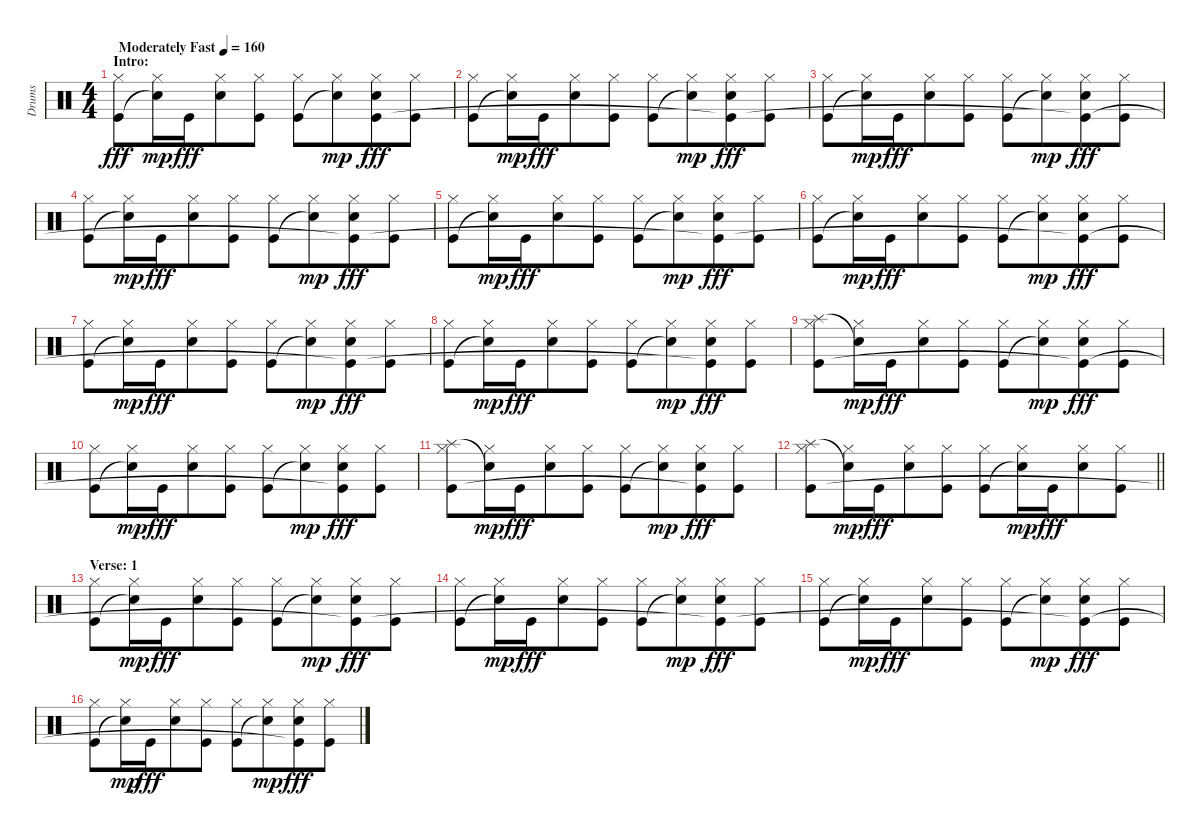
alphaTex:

\track ("Drums" "Drums") {instrument percussion}
\staff {score}
\articulation defaults
\ts (4 4)
\section ("" "Intro:")
\tempo (160 "Moderately Fast")
\clef neutral
\ks c
("Hi-Hat (closed)" "Kick (hit)").8{dy fff} ("Hi-Hat (closed)" "Snare (hit)"{t}).16{dy mp} "Kick (hit)".16{dy fff beam merge} ("Hi-Hat (closed)" "Snare (hit) 2").8 ("Hi-Hat (closed)" "Kick (hit)").8 ("Hi-Hat (closed)" "Kick (hit)").8 ("Hi-Hat (closed)" "Snare (hit)"{t}).8{dy mp beam merge} ("Hi-Hat (closed)" "Snare (hit) 2" "Kick (hit)").8{dy fff} ("Hi-Hat (closed)" "Kick (hit)").8 |
("Hi-Hat (closed)" "Kick (hit)").8 ("Hi-Hat (closed)" "Snare (hit)"{t}).16{dy mp} "Kick (hit)".16{dy fff beam merge} ("Hi-Hat (closed)" "Snare (hit) 2").8 ("Hi-Hat (closed)" "Kick (hit)").8 ("Hi-Hat (closed)" "Kick (hit)").8 ("Hi-Hat (closed)" "Snare (hit)"{t}).8{dy mp beam merge} ("Hi-Hat (closed)" "Snare (hit) 2" "Kick (hit)"{t}).8{dy fff} ("Hi-Hat (closed)" "Kick (hit)").8 |
("Hi-Hat (closed)" "Kick (hit)").8 ("Hi-Hat (closed)" "Snare (hit)"{t}).16{dy mp} "Kick (hit)".16{dy fff beam merge} ("Hi-Hat (closed)" "Snare (hit) 2").8 ("Hi-Hat (closed)" "Kick (hit)").8 ("Hi-Hat (closed)" "Kick (hit)").8 ("Hi-Hat (closed)" "Snare (hit)"{t}).8{dy mp beam merge} ("Hi-Hat (closed)" "Snare (hit) 2" "Kick (hit)"{t}).8{dy fff} ("Hi-Hat (closed)" "Kick (hit)").8 |
("Hi-Hat (closed)" "Kick (hit)").8 ("Hi-Hat (closed)" "Snare (hit)"{t}).16{dy mp} "Kick (hit)".16{dy fff beam merge} ("Hi-Hat (closed)" "Snare (hit) 2").8 ("Hi-Hat (closed)" "Kick (hit)").8 ("Hi-Hat (closed)" "Kick (hit)").8 ("Hi-Hat (closed)" "Snare (hit)"{t}).8{dy mp beam merge} ("Hi-Hat (closed)" "Snare (hit) 2" "Kick (hit)"{t}).8{dy fff} ("Hi-Hat (closed)" "Kick (hit)").8 |
("Hi-Hat (closed)" "Kick (hit)").8 ("Hi-Hat (closed)" "Snare (hit)"{t}).16{dy mp} "Kick (hit)".16{dy fff beam merge} ("Hi-Hat (closed)" "Snare (hit) 2").8 ("Hi-Hat (closed)" "Kick (hit)").8 ("Hi-Hat (closed)" "Kick (hit)").8 ("Hi-Hat (closed)" "Snare (hit)"{t}).8{dy mp beam merge} ("Hi-Hat (closed)" "Snare (hit) 2" "Kick (hit)"{t}).8{dy fff} ("Hi-Hat (closed)" "Kick (hit)").8 |
("Hi-Hat (closed)" "Kick (hit)").8 ("Hi-Hat (closed)" "Snare (hit)"{t}).16{dy mp} "Kick (hit)".16{dy fff beam merge} ("Hi-Hat (closed)" "Snare (hit) 2").8 ("Hi-Hat (closed)" "Kick (hit)").8 ("Hi-Hat (closed)" "Kick (hit)").8 ("Hi-Hat (closed)" "Snare (hit)"{t}).8{dy mp beam merge} ("Hi-Hat (closed)" "Snare (hit) 2" "Kick (hit)"{t}).8{dy fff} ("Hi-Hat (closed)" "Kick (hit)").8 |
("Hi-Hat (closed)" "Kick (hit)").8 ("Hi-Hat (closed)" "Snare (hit)"{t}).16{dy mp} "Kick (hit)".16{dy fff beam merge} ("Hi-Hat (closed)" "Snare (hit) 2").8 ("Hi-Hat (closed)" "Kick (hit)").8 ("Hi-Hat (closed)" "Kick (hit)").8 ("Hi-Hat (closed)" "Snare (hit)"{t}).8{dy mp beam merge} ("Hi-Hat (closed)" "Snare (hit) 2" "Kick (hit)"{t}).8{dy fff} ("Hi-Hat (closed)" "Kick (hit)").8 |
("Hi-Hat (closed)" "Kick (hit)").8 ("Hi-Hat (closed)" "Snare (hit)"{t}).16{dy mp} "Kick (hit)".16{dy fff beam merge} ("Hi-Hat (closed)" "Snare (hit) 2").8 ("Hi-Hat (closed)" "Kick (hit)").8 ("Hi-Hat (closed)" "Kick (hit)").8 ("Hi-Hat (closed)" "Snare (hit)"{t}).8{dy mp beam merge} ("Hi-Hat (closed)" "Snare (hit) 2" "Kick (hit)"{t}).8{dy fff} ("Hi-Hat (closed)" "Kick (hit)").8 |
("Hi-Hat (closed)" "Splash (hit)" "Kick (hit)").8 ("Hi-Hat (closed)" "Snare (hit)"{t}).16{dy mp} "Kick (hit)".16{dy fff beam merge} ("Hi-Hat (closed)" "Snare (hit) 2").8 ("Hi-Hat (closed)" "Kick (hit)").8 ("Hi-Hat (closed)" "Kick (hit)").8 ("Hi-Hat (closed)" "Snare (hit)"{t}).8{dy mp beam merge} ("Hi-Hat (closed)" "Snare (hit) 2" "Kick (hit)"{t}).8{dy fff} ("Hi-Hat (closed)" "Kick (hit)").8 |
("Hi-Hat (closed)" "Kick (hit)").8 ("Hi-Hat (closed)" "Snare (hit)"{t}).16{dy mp} "Kick (hit)".16{dy fff beam merge} ("Hi-Hat (closed)" "Snare (hit) 2").8 ("Hi-Hat (closed)" "Kick (hit)").8 ("Hi-Hat (closed)" "Kick (hit)").8 ("Hi-Hat (closed)" "Snare (hit)"{t}).8{dy mp beam merge} ("Hi-Hat (closed)" "Snare (hit) 2" "Kick (hit)"{t}).8{dy fff} ("Hi-Hat (closed)" "Kick (hit)").8 |
("Hi-Hat (closed)" "Splash (hit)" "Kick (hit)").8 ("Hi-Hat (closed)" "Snare (hit)"{t}).16{dy mp} "Kick (hit)".16{dy fff beam merge} ("Hi-Hat (closed)" "Snare (hit) 2").8 ("Hi-Hat (closed)" "Kick (hit)").8 ("Hi-Hat (closed)" "Kick (hit)").8 ("Hi-Hat (closed)" "Snare (hit)"{t}).8{dy mp beam merge} ("Hi-Hat (closed)" "Snare (hit) 2" "Kick (hit)"{t}).8{dy fff} ("Hi-Hat (closed)" "Kick (hit)").8 |
\barLineRight lightlight
("Hi-Hat (closed)" "Splash (hit)" "Kick (hit)").8 ("Hi-Hat (closed)" "Snare (hit)"{t}).16{dy mp} "Kick (hit)".16{dy fff beam merge} ("Hi-Hat (closed)" "Snare (hit) 2").8 ("Hi-Hat (closed)" "Kick (hit)").8 ("Hi-Hat (closed)" "Kick (hit)").8 ("Hi-Hat (closed)" "Snare (hit)"{t}).16{dy mp} "Kick (hit)".16{dy fff beam merge} ("Hi-Hat (closed)" "Snare (hit) 2").8 ("Hi-Hat (closed)" "Kick (hit)").8 |
\section ("" "Verse: 1")
("Hi-Hat (closed)" "Kick (hit)").8 ("Hi-Hat (closed)" "Snare (hit)"{t}).16{dy mp} "Kick (hit)".16{dy fff beam merge} ("Hi-Hat (closed)" "Snare (hit) 2").8 ("Hi-Hat (closed)" "Kick (hit)").8 ("Hi-Hat (closed)" "Kick (hit)").8 ("Hi-Hat (closed)" "Snare (hit)"{t}).8{dy mp beam merge} ("Hi-Hat (closed)" "Snare (hit) 2" "Kick (hit)"{t}).8{dy fff} ("Hi-Hat (closed)" "Kick (hit)").8 |
("Hi-Hat (closed)" "Kick (hit)").8 ("Hi-Hat (closed)" "Snare (hit)"{t}).16{dy mp} "Kick (hit)".16{dy fff beam merge} ("Hi-Hat (closed)" "Snare (hit) 2").8 ("Hi-Hat (closed)" "Kick (hit)").8 ("Hi-Hat (closed)" "Kick (hit)").8 ("Hi-Hat (closed)" "Snare (hit)"{t}).8{dy mp beam merge} ("Hi-Hat (closed)" "Snare (hit) 2" "Kick (hit)"{t}).8{dy fff} ("Hi-Hat (closed)" "Kick (hit)").8 |
("Hi-Hat (closed)" "Kick (hit)").8 ("Hi-Hat (closed)" "Snare (hit)"{t}).16{dy mp} "Kick (hit)".16{dy fff beam merge} ("Hi-Hat (closed)" "Snare (hit) 2").8 ("Hi-Hat (closed)" "Kick (hit)").8 ("Hi-Hat (closed)" "Kick (hit)").8 ("Hi-Hat (closed)" "Snare (hit)"{t}).8{dy mp beam merge} ("Hi-Hat (closed)" "Snare (hit) 2" "Kick (hit)"{t}).8{dy fff} ("Hi-Hat (closed)" "Kick (hit)").8 |
("Hi-Hat (closed)" "Kick (hit)").8 ("Hi-Hat (closed)" "Snare (hit)"{t}).16{dy mp} "Kick (hit)".16{dy fff beam merge} ("Hi-Hat (closed)" "Snare (hit) 2").8 ("Hi-Hat (closed)" "Kick (hit)").8 ("Hi-Hat (closed)" "Kick (hit)").8 ("Hi-Hat (closed)" "Snare (hit)"{t}).8{dy mp beam merge} ("Hi-Hat (closed)" "Snare (hit) 2" "Kick (hit)"{t}).8{dy fff} ("Hi-Hat (closed)" "Kick (hit)").8
